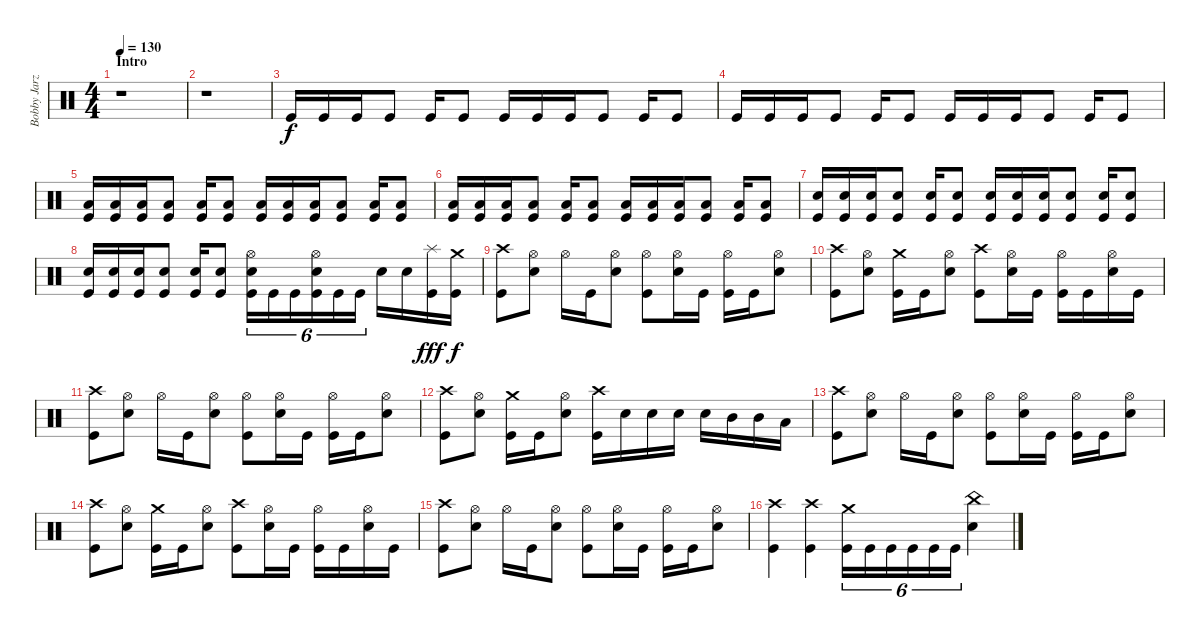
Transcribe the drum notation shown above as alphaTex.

\track ("Bobby Jarzombek" "Bobby Jarz") {instrument percussion}
\staff {score}
\articulation defaults
\ts (4 4)
\section ("" "Intro")
\tempo 130
\clef neutral
\ks c
r.1{dy f} |
r.1 |
"Kick (hit)".16 "Kick (hit)".16 "Kick (hit)".16 "Kick (hit)".8 "Kick (hit)".16 "Kick (hit)".8 "Kick (hit)".16 "Kick (hit)".16 "Kick (hit)".16 "Kick (hit)".8 "Kick (hit)".16 "Kick (hit)".8 |
"Kick (hit)".16 "Kick (hit)".16 "Kick (hit)".16 "Kick (hit)".8 "Kick (hit)".16 "Kick (hit)".8 "Kick (hit)".16 "Kick (hit)".16 "Kick (hit)".16 "Kick (hit)".8 "Kick (hit)".16 "Kick (hit)".8 |
("Low Tom (hit)" "Kick (hit)").16 ("Low Tom (hit)" "Kick (hit)").16 ("Low Tom (hit)" "Kick (hit)").16 ("Low Tom (hit)" "Kick (hit)").8 ("Low Tom (hit)" "Kick (hit)").16 ("Low Tom (hit)" "Kick (hit)").8 ("Low Tom (hit)" "Kick (hit)").16 ("Low Tom (hit)" "Kick (hit)").16 ("Low Tom (hit)" "Kick (hit)").16 ("Low Tom (hit)" "Kick (hit)").8 ("Low Tom (hit)" "Kick (hit)").16 ("Low Tom (hit)" "Kick (hit)").8 |
("Low Tom (hit)" "Kick (hit)").16 ("Low Tom (hit)" "Kick (hit)").16 ("Low Tom (hit)" "Kick (hit)").16 ("Low Tom (hit)" "Kick (hit)").8 ("Low Tom (hit)" "Kick (hit)").16 ("Low Tom (hit)" "Kick (hit)").8 ("Low Tom (hit)" "Kick (hit)").16 ("Low Tom (hit)" "Kick (hit)").16 ("Low Tom (hit)" "Kick (hit)").16 ("Low Tom (hit)" "Kick (hit)").8 ("Low Tom (hit)" "Kick (hit)").16 ("Low Tom (hit)" "Kick (hit)").8 |
("Electric Snare (hit)" "Kick (hit)").16 ("Electric Snare (hit)" "Kick (hit)").16 ("Electric Snare (hit)" "Kick (hit)").16 ("Electric Snare (hit)" "Kick (hit)").8 ("Electric Snare (hit)" "Kick (hit)").16 ("Electric Snare (hit)" "Kick (hit)").8 ("Electric Snare (hit)" "Kick (hit)").16 ("Electric Snare (hit)" "Kick (hit)").16 ("Electric Snare (hit)" "Kick (hit)").16 ("Electric Snare (hit)" "Kick (hit)").8 ("Electric Snare (hit)" "Kick (hit)").16 ("Electric Snare (hit)" "Kick (hit)").8 |
("Electric Snare (hit)" "Kick (hit)").16 ("Electric Snare (hit)" "Kick (hit)").16 ("Electric Snare (hit)" "Kick (hit)").16 ("Electric Snare (hit)" "Kick (hit)").8 ("Electric Snare (hit)" "Kick (hit)").16 ("Electric Snare (hit)" "Kick (hit)").8 ("Hi-Hat (open)" "Electric Snare (hit)" "Kick (hit)").16{tu (6 4)} "Kick (hit)".16{tu (6 4)} "Kick (hit)".16{tu (6 4)} ("Hi-Hat (open)" "Electric Snare (hit)" "Kick (hit)").16{tu (6 4)} "Kick (hit)".16{tu (6 4)} "Kick (hit)".16{tu (6 4)} "Electric Snare (hit)".16 "Electric Snare (hit)".16 ("Splash (hit)" "Kick (hit)").16{dy fff} ("Crash medium (hit)" "Kick (hit)").16{dy f} |
("Crash high (hit)" "Kick (hit)").8 ("Hi-Hat (open)" "Electric Snare (hit)").8 "Hi-Hat (open)".16 "Kick (hit)".16 ("Hi-Hat (open)" "Electric Snare (hit)").8 ("Hi-Hat (open)" "Kick (hit)").8 ("Hi-Hat (open)" "Electric Snare (hit)").16 "Kick (hit)".16 ("Hi-Hat (open)" "Kick (hit)").16 "Kick (hit)".16 ("Hi-Hat (open)" "Electric Snare (hit)").8 |
("Crash high (hit)" "Kick (hit)").8 ("Hi-Hat (open)" "Electric Snare (hit)").8 ("Crash medium (hit)" "Kick (hit)").16 "Kick (hit)".16 ("Hi-Hat (open)" "Electric Snare (hit)").8 ("Crash high (hit)" "Kick (hit)").8 ("Hi-Hat (open)" "Electric Snare (hit)").16 "Kick (hit)".16 ("Hi-Hat (open)" "Kick (hit)").16 "Kick (hit)".16 ("Hi-Hat (open)" "Electric Snare (hit)").16 "Kick (hit)".16 |
("Crash high (hit)" "Kick (hit)").8 ("Hi-Hat (open)" "Electric Snare (hit)").8 "Hi-Hat (open)".16 "Kick (hit)".16 ("Hi-Hat (open)" "Electric Snare (hit)").8 ("Hi-Hat (open)" "Kick (hit)").8 ("Hi-Hat (open)" "Electric Snare (hit)").16 "Kick (hit)".16 ("Hi-Hat (open)" "Kick (hit)").16 "Kick (hit)".16 ("Hi-Hat (open)" "Electric Snare (hit)").8 |
("Crash high (hit)" "Kick (hit)").8 ("Hi-Hat (open)" "Electric Snare (hit)").8 ("Crash medium (hit)" "Kick (hit)").16 "Kick (hit)".16 ("Hi-Hat (open)" "Electric Snare (hit)").8 ("Crash high (hit)" "Kick (hit)").16 "Electric Snare (hit)".16 "Electric Snare (hit)".16 "Electric Snare (hit)".16 "Electric Snare (hit)".16 "Mid Tom (hit)".16 "Mid Tom (hit)".16 "Low Tom (hit)".16 |
("Crash high (hit)" "Kick (hit)").8 ("Hi-Hat (open)" "Electric Snare (hit)").8 "Hi-Hat (open)".16 "Kick (hit)".16 ("Hi-Hat (open)" "Electric Snare (hit)").8 ("Hi-Hat (open)" "Kick (hit)").8 ("Hi-Hat (open)" "Electric Snare (hit)").16 "Kick (hit)".16 ("Hi-Hat (open)" "Kick (hit)").16 "Kick (hit)".16 ("Hi-Hat (open)" "Electric Snare (hit)").8 |
("Crash high (hit)" "Kick (hit)").8 ("Hi-Hat (open)" "Electric Snare (hit)").8 ("Crash medium (hit)" "Kick (hit)").16 "Kick (hit)".16 ("Hi-Hat (open)" "Electric Snare (hit)").8 ("Crash high (hit)" "Kick (hit)").8 ("Hi-Hat (open)" "Electric Snare (hit)").16 "Kick (hit)".16 ("Hi-Hat (open)" "Kick (hit)").16 "Kick (hit)".16 ("Hi-Hat (open)" "Electric Snare (hit)").16 "Kick (hit)".16 |
("Crash high (hit)" "Kick (hit)").8 ("Hi-Hat (open)" "Electric Snare (hit)").8 "Hi-Hat (open)".16 "Kick (hit)".16 ("Hi-Hat (open)" "Electric Snare (hit)").8 ("Hi-Hat (open)" "Kick (hit)").8 ("Hi-Hat (open)" "Electric Snare (hit)").16 "Kick (hit)".16 ("Hi-Hat (open)" "Kick (hit)").16 "Kick (hit)".16 ("Hi-Hat (open)" "Electric Snare (hit)").8 |
("Crash high (hit)" "Kick (hit)").4 ("Crash high (hit)" "Kick (hit)").4 ("Crash medium (hit)" "Kick (hit)").16{tu (6 4)} "Kick (hit)".16{tu (6 4)} "Kick (hit)".16{tu (6 4)} "Kick (hit)".16{tu (6 4)} "Kick (hit)".16{tu (6 4)} "Kick (hit)".16{tu (6 4)} ("China (hit)" "Electric Snare (hit)").4
